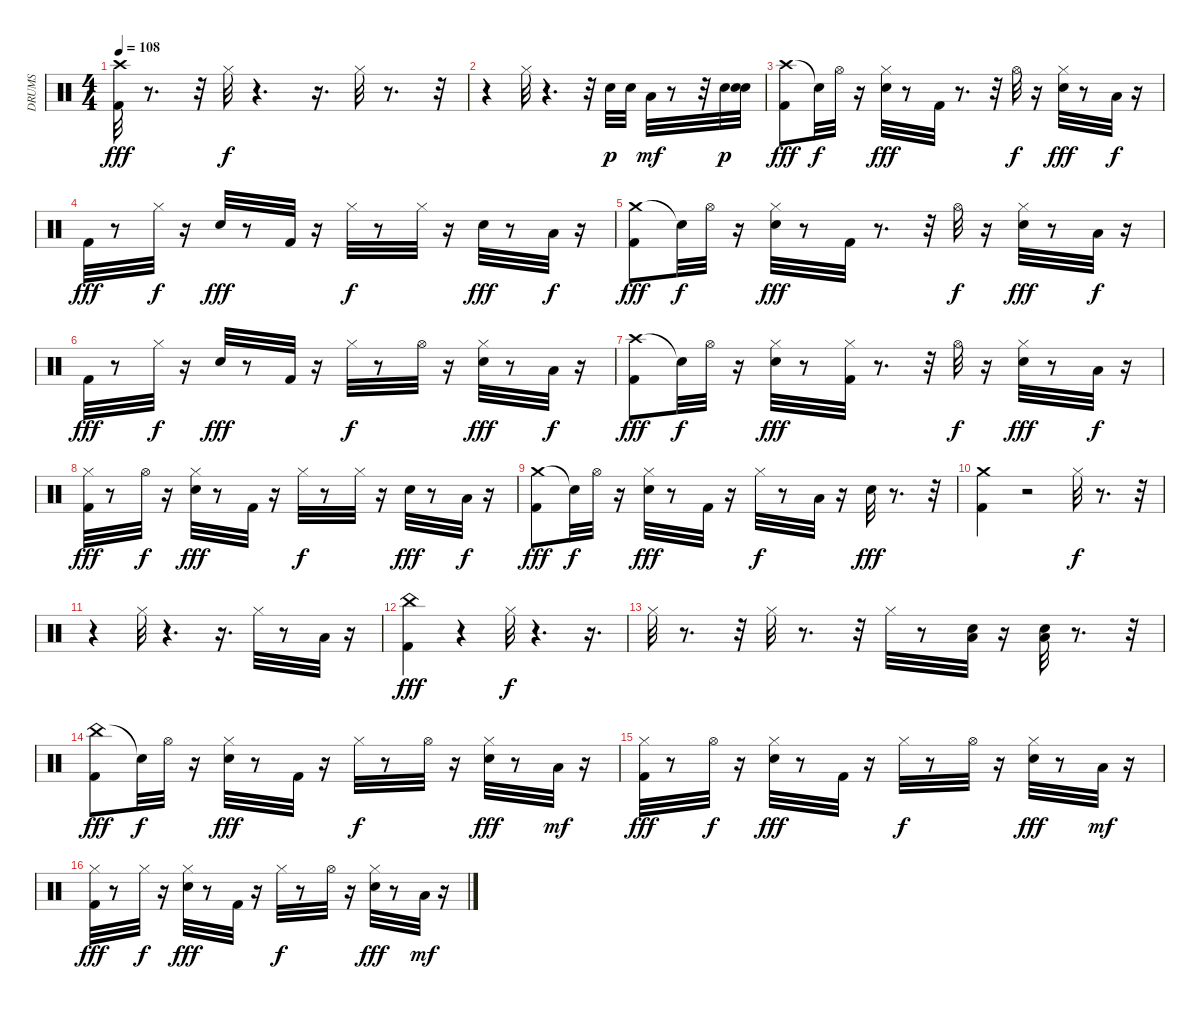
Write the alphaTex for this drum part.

\track ("DRUMS" "DRUMS") {instrument percussion}
\staff {score}
\articulation defaults
\ts (4 4)
\tempo 108
\clef neutral
\ks c
("Crash high (hit)" "Kick (hit) 2").32{dy fff} r.8{d} r.32 "Hi-Hat (closed)".32{dy f} r.4{d} r.16{d} "Hi-Hat (closed)".32 r.8{d} r.32 |
r.4 "Hi-Hat (closed)".32 r.4{d} r.32 "Snare (hit) 2".32{dy p} "Snare (hit) 2".32 "Low Floor Tom (hit)".32{dy mf} r.8 r.32 "Snare (hit) 2".32{dy p} ("Snare (hit) 2" "Snare (hit) 2").32 |
("Crash high (hit)" "Kick (hit) 2").8{dy fff} "Snare (hit)"{t}.32{dy f} "Hi-Hat (open)".32 r.16 ("Hi-Hat (closed)" "Snare (hit) 2").32{dy fff} r.8 "Kick (hit) 2".32 r.8{d} r.32 "Hi-Hat (open)".32{dy f} r.16 ("Hi-Hat (closed)" "Snare (hit) 2").32{dy fff} r.8 "Low Tom (hit)".32{dy f} r.16 |
"Kick (hit) 2".32{dy fff} r.8 "Hi-Hat (closed)".32{dy f} r.16 "Snare (hit) 2".32{dy fff} r.8 "Kick (hit) 2".32 r.16 "Hi-Hat (closed)".32{dy f} r.8 "Hi-Hat (closed)".32 r.16 "Snare (hit) 2".32{dy fff} r.8 "Low Floor Tom (hit)".32{dy f} r.16 |
("Crash medium (hit)" "Kick (hit) 2").8{dy fff} "Snare (hit)"{t}.32{dy f} "Hi-Hat (open)".32 r.16 ("Hi-Hat (closed)" "Snare (hit) 2").32{dy fff} r.8 "Kick (hit) 2".32 r.8{d} r.32 "Hi-Hat (open)".32{dy f} r.16 ("Hi-Hat (closed)" "Snare (hit) 2").32{dy fff} r.8 "Low Tom (hit)".32{dy f} r.16 |
"Kick (hit) 2".32{dy fff} r.8 "Hi-Hat (closed)".32{dy f} r.16 "Snare (hit) 2".32{dy fff} r.8 "Kick (hit) 2".32 r.16 "Hi-Hat (closed)".32{dy f} r.8 "Hi-Hat (open)".32 r.16 ("Hi-Hat (closed)" "Snare (hit) 2").32{dy fff} r.8 "Low Floor Tom (hit)".32{dy f} r.16 |
("Crash high (hit)" "Kick (hit) 2").8{dy fff} "Snare (hit)"{t}.32{dy f} "Hi-Hat (open)".32 r.16 ("Hi-Hat (closed)" "Snare (hit) 2").32{dy fff} r.8 ("Hi-Hat (closed)" "Kick (hit) 2").32 r.8{d} r.32 "Hi-Hat (open)".32{dy f} r.16 ("Hi-Hat (closed)" "Snare (hit) 2").32{dy fff} r.8 "Low Tom (hit)".32{dy f} r.16 |
("Hi-Hat (closed)" "Kick (hit) 2").32{dy fff} r.8 "Hi-Hat (open)".32{dy f} r.16 ("Hi-Hat (closed)" "Snare (hit) 2").32{dy fff} r.8 "Kick (hit) 2".32 r.16 "Hi-Hat (closed)".32{dy f} r.8 "Hi-Hat (closed)".32 r.16 "Snare (hit) 2".32{dy fff} r.8 "Low Floor Tom (hit)".32{dy f} r.16 |
("Crash medium (hit)" "Kick (hit) 2").8{dy fff} "Snare (hit)"{t}.32{dy f} "Hi-Hat (open)".32 r.16 ("Hi-Hat (closed)" "Snare (hit) 2").32{dy fff} r.8 "Kick (hit) 2".32 r.16 "Hi-Hat (closed)".32{dy f} r.8 "Low Floor Tom (hit)".32 r.16 "Snare (hit) 2".32{dy fff} r.8{d} r.32 |
("Crash medium (hit)" "Kick (hit) 2").4 r.2 "Hi-Hat (closed)".32{dy f} r.8{d} r.32 |
r.4 "Hi-Hat (closed)".32 r.4{d} r.16{d} "Hi-Hat (closed)".32 r.8 "Low Floor Tom (hit)".32 r.16 |
("China (hit)" "Kick (hit) 2").4{dy fff} r.4 "Hi-Hat (closed)".32{dy f} r.4{d} r.16{d} |
"Hi-Hat (closed)".32 r.8{d} r.32 "Hi-Hat (closed)".32 r.8{d} r.32 "Hi-Hat (closed)".32 r.8 ("Snare (hit) 2" "Low Floor Tom (hit)").32 r.16 ("Snare (hit) 2" "Low Tom (hit)").32 r.8{d} r.32 |
("China (hit)" "Kick (hit) 2").8{dy fff} "Snare (hit)"{t}.32{dy f} "Hi-Hat (open)".32 r.16 ("Hi-Hat (closed)" "Snare (hit) 2").32{dy fff} r.8 "Kick (hit) 2".32 r.16 "Hi-Hat (closed)".32{dy f} r.8 "Hi-Hat (open)".32 r.16 ("Hi-Hat (closed)" "Snare (hit) 2").32{dy fff} r.8 "Low Floor Tom (hit)".32{dy mf} r.16 |
("Hi-Hat (closed)" "Kick (hit) 2").32{dy fff} r.8 "Hi-Hat (open)".32{dy f} r.16 ("Hi-Hat (closed)" "Snare (hit) 2").32{dy fff} r.8 "Kick (hit) 2".32 r.16 "Hi-Hat (closed)".32{dy f} r.8 "Hi-Hat (open)".32 r.16 ("Hi-Hat (closed)" "Snare (hit) 2").32{dy fff} r.8 "Low Floor Tom (hit)".32{dy mf} r.16 |
("Hi-Hat (closed)" "Kick (hit) 2").32{dy fff} r.8 "Hi-Hat (closed)".32{dy f} r.16 ("Hi-Hat (closed)" "Snare (hit) 2").32{dy fff} r.8 "Kick (hit) 2".32 r.16 "Hi-Hat (closed)".32{dy f} r.8 "Hi-Hat (open)".32 r.16 ("Hi-Hat (closed)" "Snare (hit) 2").32{dy fff} r.8 "Low Floor Tom (hit)".32{dy mf} r.16
